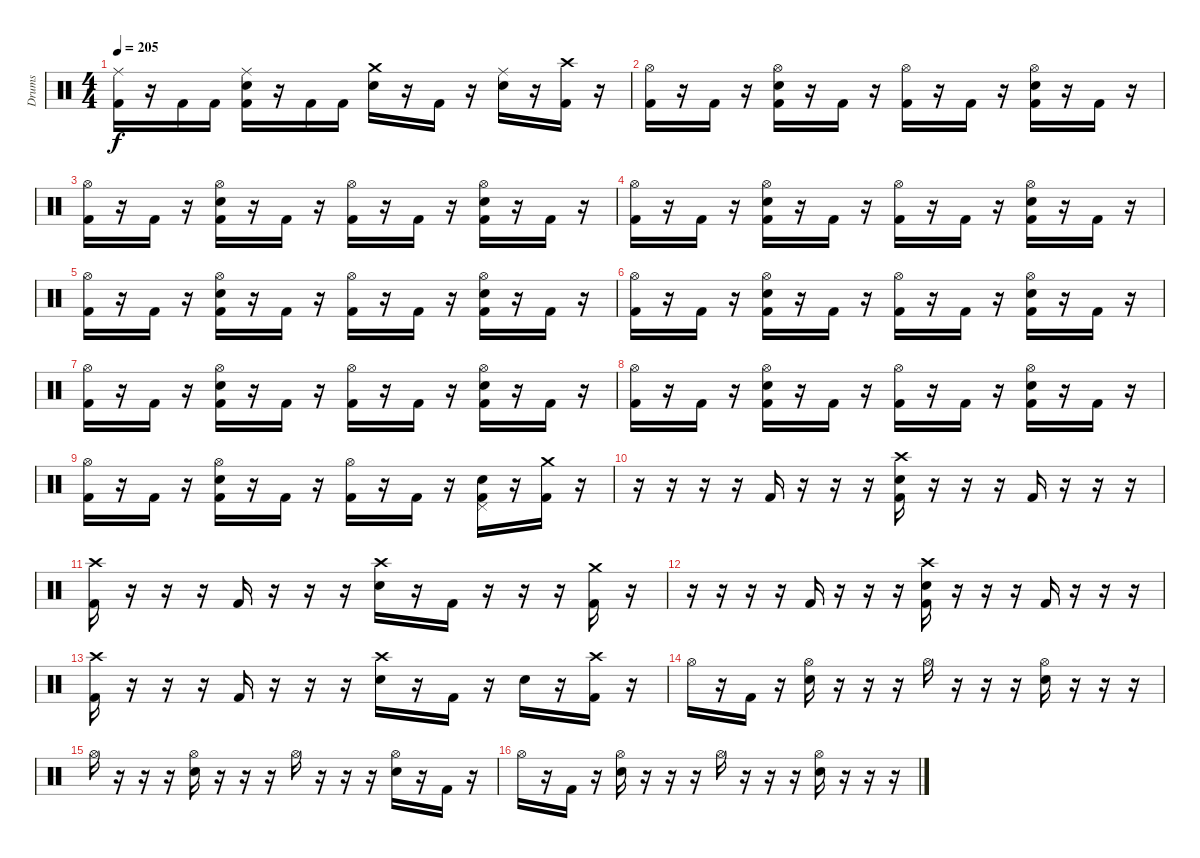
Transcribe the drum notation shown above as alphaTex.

\track ("Drums" "Drums") {instrument percussion}
\staff {score}
\articulation defaults
\ts (4 4)
\tempo 205
\clef neutral
\ks c
("Ride (middle)" "Kick (hit) 2").16{dy f} r.16 "Kick (hit) 2".16 "Kick (hit) 2".16 ("Ride (middle)" "Electric Snare (hit)" "Kick (hit) 2").16 r.16 "Kick (hit) 2".16 "Kick (hit) 2".16 ("Crash medium (hit)" "Electric Snare (hit)").16 r.16 "Kick (hit) 2".16 r.16 ("Ride (middle)" "Electric Snare (hit)").16 r.16 ("Crash high (hit)" "Kick (hit) 2").16 r.16 |
("Hi-Hat (open)" "Kick (hit) 2").16 r.16 "Kick (hit) 2".16 r.16 ("Hi-Hat (open)" "Electric Snare (hit)" "Kick (hit) 2").16 r.16 "Kick (hit) 2".16 r.16 ("Hi-Hat (open)" "Kick (hit) 2").16 r.16 "Kick (hit) 2".16 r.16 ("Hi-Hat (open)" "Electric Snare (hit)" "Kick (hit) 2").16 r.16 "Kick (hit) 2".16 r.16 |
("Hi-Hat (open)" "Kick (hit) 2").16 r.16 "Kick (hit) 2".16 r.16 ("Hi-Hat (open)" "Electric Snare (hit)" "Kick (hit) 2").16 r.16 "Kick (hit) 2".16 r.16 ("Hi-Hat (open)" "Kick (hit) 2").16 r.16 "Kick (hit) 2".16 r.16 ("Hi-Hat (open)" "Electric Snare (hit)" "Kick (hit) 2").16 r.16 "Kick (hit) 2".16 r.16 |
("Hi-Hat (open)" "Kick (hit) 2").16 r.16 "Kick (hit) 2".16 r.16 ("Hi-Hat (open)" "Electric Snare (hit)" "Kick (hit) 2").16 r.16 "Kick (hit) 2".16 r.16 ("Hi-Hat (open)" "Kick (hit) 2").16 r.16 "Kick (hit) 2".16 r.16 ("Hi-Hat (open)" "Electric Snare (hit)" "Kick (hit) 2").16 r.16 "Kick (hit) 2".16 r.16 |
("Hi-Hat (open)" "Kick (hit) 2").16 r.16 "Kick (hit) 2".16 r.16 ("Hi-Hat (open)" "Electric Snare (hit)" "Kick (hit) 2").16 r.16 "Kick (hit) 2".16 r.16 ("Hi-Hat (open)" "Kick (hit) 2").16 r.16 "Kick (hit) 2".16 r.16 ("Hi-Hat (open)" "Electric Snare (hit)" "Kick (hit) 2").16 r.16 "Kick (hit) 2".16 r.16 |
("Hi-Hat (open)" "Kick (hit) 2").16 r.16 "Kick (hit) 2".16 r.16 ("Hi-Hat (open)" "Electric Snare (hit)" "Kick (hit) 2").16 r.16 "Kick (hit) 2".16 r.16 ("Hi-Hat (open)" "Kick (hit) 2").16 r.16 "Kick (hit) 2".16 r.16 ("Hi-Hat (open)" "Electric Snare (hit)" "Kick (hit) 2").16 r.16 "Kick (hit) 2".16 r.16 |
("Hi-Hat (open)" "Kick (hit) 2").16 r.16 "Kick (hit) 2".16 r.16 ("Hi-Hat (open)" "Electric Snare (hit)" "Kick (hit) 2").16 r.16 "Kick (hit) 2".16 r.16 ("Hi-Hat (open)" "Kick (hit) 2").16 r.16 "Kick (hit) 2".16 r.16 ("Hi-Hat (open)" "Electric Snare (hit)" "Kick (hit) 2").16 r.16 "Kick (hit) 2".16 r.16 |
("Hi-Hat (open)" "Kick (hit) 2").16 r.16 "Kick (hit) 2".16 r.16 ("Hi-Hat (open)" "Electric Snare (hit)" "Kick (hit) 2").16 r.16 "Kick (hit) 2".16 r.16 ("Hi-Hat (open)" "Kick (hit) 2").16 r.16 "Kick (hit) 2".16 r.16 ("Hi-Hat (open)" "Electric Snare (hit)" "Kick (hit) 2").16 r.16 "Kick (hit) 2".16 r.16 |
("Hi-Hat (open)" "Kick (hit) 2").16 r.16 "Kick (hit) 2".16 r.16 ("Hi-Hat (open)" "Electric Snare (hit)" "Kick (hit) 2").16 r.16 "Kick (hit) 2".16 r.16 ("Hi-Hat (open)" "Kick (hit) 2").16 r.16 "Kick (hit) 2".16 r.16 ("Pedal Hi-Hat (hit)" "Electric Snare (hit)" "Kick (hit) 2").16 r.16 ("Crash medium (hit)" "Kick (hit) 2").16 r.16 |
r.16 r.16 r.16 r.16 "Kick (hit) 2".16 r.16 r.16 r.16 ("Crash high (hit)" "Electric Snare (hit)" "Kick (hit) 2").16 r.16 r.16 r.16 "Kick (hit) 2".16 r.16 r.16 r.16 |
("Crash high (hit)" "Kick (hit) 2").16 r.16 r.16 r.16 "Kick (hit) 2".16 r.16 r.16 r.16 ("Crash high (hit)" "Electric Snare (hit)").16 r.16 "Kick (hit) 2".16 r.16 r.16 r.16 ("Crash medium (hit)" "Kick (hit) 2").16 r.16 |
r.16 r.16 r.16 r.16 "Kick (hit) 2".16 r.16 r.16 r.16 ("Crash high (hit)" "Electric Snare (hit)" "Kick (hit) 2").16 r.16 r.16 r.16 "Kick (hit) 2".16 r.16 r.16 r.16 |
("Crash high (hit)" "Kick (hit) 2").16 r.16 r.16 r.16 "Kick (hit) 2".16 r.16 r.16 r.16 ("Crash high (hit)" "Electric Snare (hit)").16 r.16 "Kick (hit) 2".16 r.16 "Electric Snare (hit)".16 r.16 ("Crash high (hit)" "Kick (hit) 2").16 r.16 |
"Hi-Hat (open)".16 r.16 "Kick (hit) 2".16 r.16 ("Hi-Hat (open)" "Electric Snare (hit)").16 r.16 r.16 r.16 "Hi-Hat (open)".16 r.16 r.16 r.16 ("Hi-Hat (open)" "Electric Snare (hit)").16 r.16 r.16 r.16 |
"Hi-Hat (open)".16 r.16 r.16 r.16 ("Hi-Hat (open)" "Electric Snare (hit)").16 r.16 r.16 r.16 "Hi-Hat (open)".16 r.16 r.16 r.16 ("Hi-Hat (open)" "Electric Snare (hit)").16 r.16 "Kick (hit) 2".16 r.16 |
"Hi-Hat (open)".16 r.16 "Kick (hit) 2".16 r.16 ("Hi-Hat (open)" "Electric Snare (hit)").16 r.16 r.16 r.16 "Hi-Hat (open)".16 r.16 r.16 r.16 ("Hi-Hat (open)" "Electric Snare (hit)").16 r.16 r.16 r.16
